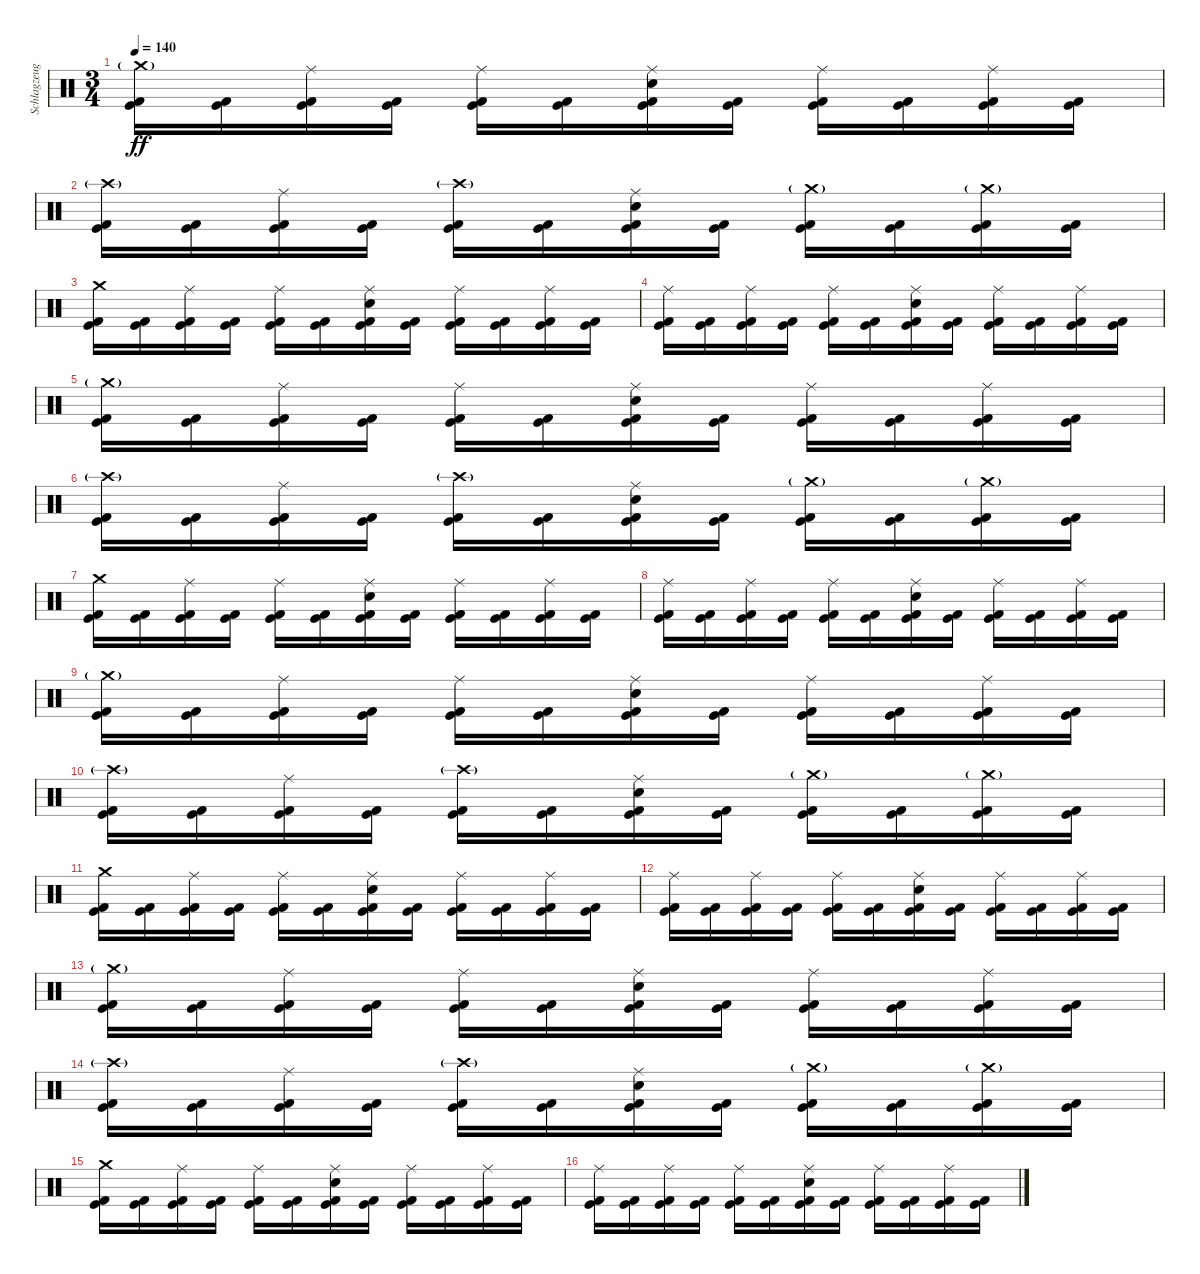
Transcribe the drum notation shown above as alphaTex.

\track ("Schlagzeug" "Schlagzeug") {instrument percussion}
\staff {score}
\articulation defaults
\ts (3 4)
\tempo 140
\clef neutral
\ks c
("Crash medium (hit)"{g} "Kick (hit)" "Kick (hit) 2").16{dy ff} ("Kick (hit)" "Kick (hit) 2").16 ("Ride (middle)" "Kick (hit)" "Kick (hit) 2").16 ("Kick (hit)" "Kick (hit) 2").16 ("Ride (middle)" "Kick (hit)" "Kick (hit) 2").16 ("Kick (hit)" "Kick (hit) 2").16 ("Ride (middle)" "Kick (hit)" "Kick (hit) 2" "Electric Snare (hit)").16 ("Kick (hit)" "Kick (hit) 2").16 ("Ride (middle)" "Kick (hit)" "Kick (hit) 2").16 ("Kick (hit)" "Kick (hit) 2").16 ("Ride (middle)" "Kick (hit)" "Kick (hit) 2").16 ("Kick (hit)" "Kick (hit) 2").16 |
("Crash high (hit)"{g} "Kick (hit)" "Kick (hit) 2").16 ("Kick (hit)" "Kick (hit) 2").16 ("Ride (middle)" "Kick (hit)" "Kick (hit) 2").16 ("Kick (hit)" "Kick (hit) 2").16 ("Crash high (hit)"{g} "Kick (hit)" "Kick (hit) 2").16 ("Kick (hit)" "Kick (hit) 2").16 ("Ride (middle)" "Kick (hit)" "Kick (hit) 2" "Electric Snare (hit)").16 ("Kick (hit)" "Kick (hit) 2").16 ("Crash medium (hit)"{g} "Kick (hit)" "Kick (hit) 2").16 ("Kick (hit)" "Kick (hit) 2").16 ("Crash medium (hit)"{g} "Kick (hit)" "Kick (hit) 2").16 ("Kick (hit)" "Kick (hit) 2").16 |
("Crash medium (hit)" "Kick (hit)" "Kick (hit) 2").16 ("Kick (hit)" "Kick (hit) 2").16 ("Ride (middle)" "Kick (hit)" "Kick (hit) 2").16 ("Kick (hit)" "Kick (hit) 2").16 ("Ride (middle)" "Kick (hit)" "Kick (hit) 2").16 ("Kick (hit)" "Kick (hit) 2").16 ("Ride (middle)" "Kick (hit)" "Kick (hit) 2" "Electric Snare (hit)").16 ("Kick (hit)" "Kick (hit) 2").16 ("Ride (middle)" "Kick (hit)" "Kick (hit) 2").16 ("Kick (hit)" "Kick (hit) 2").16 ("Ride (middle)" "Kick (hit)" "Kick (hit) 2").16 ("Kick (hit)" "Kick (hit) 2").16 |
("Ride (middle)" "Kick (hit)" "Kick (hit) 2").16 ("Kick (hit)" "Kick (hit) 2").16 ("Ride (middle)" "Kick (hit)" "Kick (hit) 2").16 ("Kick (hit)" "Kick (hit) 2").16 ("Ride (middle)" "Kick (hit)" "Kick (hit) 2").16 ("Kick (hit)" "Kick (hit) 2").16 ("Ride (middle)" "Kick (hit)" "Kick (hit) 2" "Electric Snare (hit)").16 ("Kick (hit)" "Kick (hit) 2").16 ("Ride (middle)" "Kick (hit)" "Kick (hit) 2").16 ("Kick (hit)" "Kick (hit) 2").16 ("Ride (middle)" "Kick (hit)" "Kick (hit) 2").16 ("Kick (hit)" "Kick (hit) 2").16 |
("Crash medium (hit)"{g} "Kick (hit)" "Kick (hit) 2").16 ("Kick (hit)" "Kick (hit) 2").16 ("Ride (middle)" "Kick (hit)" "Kick (hit) 2").16 ("Kick (hit)" "Kick (hit) 2").16 ("Ride (middle)" "Kick (hit)" "Kick (hit) 2").16 ("Kick (hit)" "Kick (hit) 2").16 ("Ride (middle)" "Kick (hit)" "Kick (hit) 2" "Electric Snare (hit)").16 ("Kick (hit)" "Kick (hit) 2").16 ("Ride (middle)" "Kick (hit)" "Kick (hit) 2").16 ("Kick (hit)" "Kick (hit) 2").16 ("Ride (middle)" "Kick (hit)" "Kick (hit) 2").16 ("Kick (hit)" "Kick (hit) 2").16 |
("Crash high (hit)"{g} "Kick (hit)" "Kick (hit) 2").16 ("Kick (hit)" "Kick (hit) 2").16 ("Ride (middle)" "Kick (hit)" "Kick (hit) 2").16 ("Kick (hit)" "Kick (hit) 2").16 ("Crash high (hit)"{g} "Kick (hit)" "Kick (hit) 2").16 ("Kick (hit)" "Kick (hit) 2").16 ("Ride (middle)" "Kick (hit)" "Kick (hit) 2" "Electric Snare (hit)").16 ("Kick (hit)" "Kick (hit) 2").16 ("Crash medium (hit)"{g} "Kick (hit)" "Kick (hit) 2").16 ("Kick (hit)" "Kick (hit) 2").16 ("Crash medium (hit)"{g} "Kick (hit)" "Kick (hit) 2").16 ("Kick (hit)" "Kick (hit) 2").16 |
("Crash medium (hit)" "Kick (hit)" "Kick (hit) 2").16 ("Kick (hit)" "Kick (hit) 2").16 ("Ride (middle)" "Kick (hit)" "Kick (hit) 2").16 ("Kick (hit)" "Kick (hit) 2").16 ("Ride (middle)" "Kick (hit)" "Kick (hit) 2").16 ("Kick (hit)" "Kick (hit) 2").16 ("Ride (middle)" "Kick (hit)" "Kick (hit) 2" "Electric Snare (hit)").16 ("Kick (hit)" "Kick (hit) 2").16 ("Ride (middle)" "Kick (hit)" "Kick (hit) 2").16 ("Kick (hit)" "Kick (hit) 2").16 ("Ride (middle)" "Kick (hit)" "Kick (hit) 2").16 ("Kick (hit)" "Kick (hit) 2").16 |
("Ride (middle)" "Kick (hit)" "Kick (hit) 2").16 ("Kick (hit)" "Kick (hit) 2").16 ("Ride (middle)" "Kick (hit)" "Kick (hit) 2").16 ("Kick (hit)" "Kick (hit) 2").16 ("Ride (middle)" "Kick (hit)" "Kick (hit) 2").16 ("Kick (hit)" "Kick (hit) 2").16 ("Ride (middle)" "Kick (hit)" "Kick (hit) 2" "Electric Snare (hit)").16 ("Kick (hit)" "Kick (hit) 2").16 ("Ride (middle)" "Kick (hit)" "Kick (hit) 2").16 ("Kick (hit)" "Kick (hit) 2").16 ("Ride (middle)" "Kick (hit)" "Kick (hit) 2").16 ("Kick (hit)" "Kick (hit) 2").16 |
("Crash medium (hit)"{g} "Kick (hit)" "Kick (hit) 2").16 ("Kick (hit)" "Kick (hit) 2").16 ("Ride (middle)" "Kick (hit)" "Kick (hit) 2").16 ("Kick (hit)" "Kick (hit) 2").16 ("Ride (middle)" "Kick (hit)" "Kick (hit) 2").16 ("Kick (hit)" "Kick (hit) 2").16 ("Ride (middle)" "Kick (hit)" "Kick (hit) 2" "Electric Snare (hit)").16 ("Kick (hit)" "Kick (hit) 2").16 ("Ride (middle)" "Kick (hit)" "Kick (hit) 2").16 ("Kick (hit)" "Kick (hit) 2").16 ("Ride (middle)" "Kick (hit)" "Kick (hit) 2").16 ("Kick (hit)" "Kick (hit) 2").16 |
("Crash high (hit)"{g} "Kick (hit)" "Kick (hit) 2").16 ("Kick (hit)" "Kick (hit) 2").16 ("Ride (middle)" "Kick (hit)" "Kick (hit) 2").16 ("Kick (hit)" "Kick (hit) 2").16 ("Crash high (hit)"{g} "Kick (hit)" "Kick (hit) 2").16 ("Kick (hit)" "Kick (hit) 2").16 ("Ride (middle)" "Kick (hit)" "Kick (hit) 2" "Electric Snare (hit)").16 ("Kick (hit)" "Kick (hit) 2").16 ("Crash medium (hit)"{g} "Kick (hit)" "Kick (hit) 2").16 ("Kick (hit)" "Kick (hit) 2").16 ("Crash medium (hit)"{g} "Kick (hit)" "Kick (hit) 2").16 ("Kick (hit)" "Kick (hit) 2").16 |
("Crash medium (hit)" "Kick (hit)" "Kick (hit) 2").16 ("Kick (hit)" "Kick (hit) 2").16 ("Ride (middle)" "Kick (hit)" "Kick (hit) 2").16 ("Kick (hit)" "Kick (hit) 2").16 ("Ride (middle)" "Kick (hit)" "Kick (hit) 2").16 ("Kick (hit)" "Kick (hit) 2").16 ("Ride (middle)" "Kick (hit)" "Kick (hit) 2" "Electric Snare (hit)").16 ("Kick (hit)" "Kick (hit) 2").16 ("Ride (middle)" "Kick (hit)" "Kick (hit) 2").16 ("Kick (hit)" "Kick (hit) 2").16 ("Ride (middle)" "Kick (hit)" "Kick (hit) 2").16 ("Kick (hit)" "Kick (hit) 2").16 |
("Ride (middle)" "Kick (hit)" "Kick (hit) 2").16 ("Kick (hit)" "Kick (hit) 2").16 ("Ride (middle)" "Kick (hit)" "Kick (hit) 2").16 ("Kick (hit)" "Kick (hit) 2").16 ("Ride (middle)" "Kick (hit)" "Kick (hit) 2").16 ("Kick (hit)" "Kick (hit) 2").16 ("Ride (middle)" "Kick (hit)" "Kick (hit) 2" "Electric Snare (hit)").16 ("Kick (hit)" "Kick (hit) 2").16 ("Ride (middle)" "Kick (hit)" "Kick (hit) 2").16 ("Kick (hit)" "Kick (hit) 2").16 ("Ride (middle)" "Kick (hit)" "Kick (hit) 2").16 ("Kick (hit)" "Kick (hit) 2").16 |
("Crash medium (hit)"{g} "Kick (hit)" "Kick (hit) 2").16 ("Kick (hit)" "Kick (hit) 2").16 ("Ride (middle)" "Kick (hit)" "Kick (hit) 2").16 ("Kick (hit)" "Kick (hit) 2").16 ("Ride (middle)" "Kick (hit)" "Kick (hit) 2").16 ("Kick (hit)" "Kick (hit) 2").16 ("Ride (middle)" "Kick (hit)" "Kick (hit) 2" "Electric Snare (hit)").16 ("Kick (hit)" "Kick (hit) 2").16 ("Ride (middle)" "Kick (hit)" "Kick (hit) 2").16 ("Kick (hit)" "Kick (hit) 2").16 ("Ride (middle)" "Kick (hit)" "Kick (hit) 2").16 ("Kick (hit)" "Kick (hit) 2").16 |
("Crash high (hit)"{g} "Kick (hit)" "Kick (hit) 2").16 ("Kick (hit)" "Kick (hit) 2").16 ("Ride (middle)" "Kick (hit)" "Kick (hit) 2").16 ("Kick (hit)" "Kick (hit) 2").16 ("Crash high (hit)"{g} "Kick (hit)" "Kick (hit) 2").16 ("Kick (hit)" "Kick (hit) 2").16 ("Ride (middle)" "Kick (hit)" "Kick (hit) 2" "Electric Snare (hit)").16 ("Kick (hit)" "Kick (hit) 2").16 ("Crash medium (hit)"{g} "Kick (hit)" "Kick (hit) 2").16 ("Kick (hit)" "Kick (hit) 2").16 ("Crash medium (hit)"{g} "Kick (hit)" "Kick (hit) 2").16 ("Kick (hit)" "Kick (hit) 2").16 |
("Crash medium (hit)" "Kick (hit)" "Kick (hit) 2").16 ("Kick (hit)" "Kick (hit) 2").16 ("Ride (middle)" "Kick (hit)" "Kick (hit) 2").16 ("Kick (hit)" "Kick (hit) 2").16 ("Ride (middle)" "Kick (hit)" "Kick (hit) 2").16 ("Kick (hit)" "Kick (hit) 2").16 ("Ride (middle)" "Kick (hit)" "Kick (hit) 2" "Electric Snare (hit)").16 ("Kick (hit)" "Kick (hit) 2").16 ("Ride (middle)" "Kick (hit)" "Kick (hit) 2").16 ("Kick (hit)" "Kick (hit) 2").16 ("Ride (middle)" "Kick (hit)" "Kick (hit) 2").16 ("Kick (hit)" "Kick (hit) 2").16 |
("Ride (middle)" "Kick (hit)" "Kick (hit) 2").16 ("Kick (hit)" "Kick (hit) 2").16 ("Ride (middle)" "Kick (hit)" "Kick (hit) 2").16 ("Kick (hit)" "Kick (hit) 2").16 ("Ride (middle)" "Kick (hit)" "Kick (hit) 2").16 ("Kick (hit)" "Kick (hit) 2").16 ("Ride (middle)" "Kick (hit)" "Kick (hit) 2" "Electric Snare (hit)").16 ("Kick (hit)" "Kick (hit) 2").16 ("Ride (middle)" "Kick (hit)" "Kick (hit) 2").16 ("Kick (hit)" "Kick (hit) 2").16 ("Ride (middle)" "Kick (hit)" "Kick (hit) 2").16 ("Kick (hit)" "Kick (hit) 2").16
